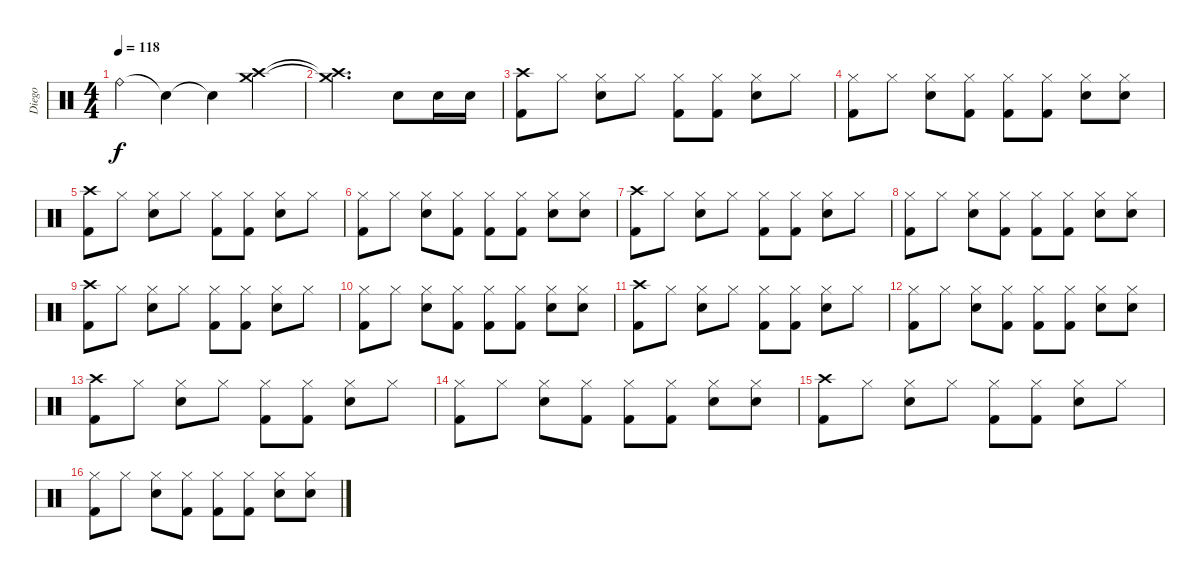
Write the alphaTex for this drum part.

\track ("Diego" "Diego") {instrument percussion}
\staff {score}
\articulation defaults
\ts (4 4)
\tempo 118
\clef neutral
\ks c "Ride (bell)".4{dy f} "Snare (hit)"{t}.4 "Snare (hit)"{t}.4
("Crash high (hit)" "Crash medium (hit)").4 |
("Crash high (hit)"{t} "Crash medium (hit)"{t}).2{d} "Snare (hit) 2".8 "Snare (hit) 2".16 "Snare (hit) 2".16 |
("Crash high (hit)" "Kick (hit) 2").8 "Hi-Hat (closed)".8 ("Hi-Hat (closed)" "Snare (hit) 2").8 "Hi-Hat (closed)".8 ("Hi-Hat (closed)" "Kick (hit) 2").8 ("Hi-Hat (closed)" "Kick (hit) 2").8 ("Hi-Hat (closed)" "Snare (hit) 2").8 "Hi-Hat (closed)".8 |
("Hi-Hat (closed)" "Kick (hit) 2").8 "Hi-Hat (closed)".8 ("Hi-Hat (closed)" "Snare (hit) 2").8 ("Hi-Hat (closed)" "Kick (hit) 2").8 ("Hi-Hat (closed)" "Kick (hit) 2").8 ("Hi-Hat (closed)" "Kick (hit) 2").8 ("Hi-Hat (closed)" "Snare (hit) 2").8 ("Hi-Hat (closed)" "Snare (hit) 2").8 |
("Crash high (hit)" "Kick (hit) 2").8 "Hi-Hat (closed)".8 ("Hi-Hat (closed)" "Snare (hit) 2").8 "Hi-Hat (closed)".8 ("Hi-Hat (closed)" "Kick (hit) 2").8 ("Hi-Hat (closed)" "Kick (hit) 2").8 ("Hi-Hat (closed)" "Snare (hit) 2").8 "Hi-Hat (closed)".8 |
("Hi-Hat (closed)" "Kick (hit) 2").8 "Hi-Hat (closed)".8 ("Hi-Hat (closed)" "Snare (hit) 2").8 ("Hi-Hat (closed)" "Kick (hit) 2").8 ("Hi-Hat (closed)" "Kick (hit) 2").8 ("Hi-Hat (closed)" "Kick (hit) 2").8 ("Hi-Hat (closed)" "Snare (hit) 2").8 ("Hi-Hat (closed)" "Snare (hit) 2").8 |
("Crash high (hit)" "Kick (hit) 2").8 "Hi-Hat (closed)".8 ("Hi-Hat (closed)" "Snare (hit) 2").8 "Hi-Hat (closed)".8 ("Hi-Hat (closed)" "Kick (hit) 2").8 ("Hi-Hat (closed)" "Kick (hit) 2").8 ("Hi-Hat (closed)" "Snare (hit) 2").8 "Hi-Hat (closed)".8 |
("Hi-Hat (closed)" "Kick (hit) 2").8 "Hi-Hat (closed)".8 ("Hi-Hat (closed)" "Snare (hit) 2").8 ("Hi-Hat (closed)" "Kick (hit) 2").8 ("Hi-Hat (closed)" "Kick (hit) 2").8 ("Hi-Hat (closed)" "Kick (hit) 2").8 ("Hi-Hat (closed)" "Snare (hit) 2").8 ("Hi-Hat (closed)" "Snare (hit) 2").8 |
("Crash high (hit)" "Kick (hit) 2").8 "Hi-Hat (closed)".8 ("Hi-Hat (closed)" "Snare (hit) 2").8 "Hi-Hat (closed)".8 ("Hi-Hat (closed)" "Kick (hit) 2").8 ("Hi-Hat (closed)" "Kick (hit) 2").8 ("Hi-Hat (closed)" "Snare (hit) 2").8 "Hi-Hat (closed)".8 |
("Hi-Hat (closed)" "Kick (hit) 2").8 "Hi-Hat (closed)".8 ("Hi-Hat (closed)" "Snare (hit) 2").8 ("Hi-Hat (closed)" "Kick (hit) 2").8 ("Hi-Hat (closed)" "Kick (hit) 2").8 ("Hi-Hat (closed)" "Kick (hit) 2").8 ("Hi-Hat (closed)" "Snare (hit) 2").8 ("Hi-Hat (closed)" "Snare (hit) 2").8 |
("Crash high (hit)" "Kick (hit) 2").8 "Hi-Hat (closed)".8 ("Hi-Hat (closed)" "Snare (hit) 2").8 "Hi-Hat (closed)".8 ("Hi-Hat (closed)" "Kick (hit) 2").8 ("Hi-Hat (closed)" "Kick (hit) 2").8 ("Hi-Hat (closed)" "Snare (hit) 2").8 "Hi-Hat (closed)".8 |
("Hi-Hat (closed)" "Kick (hit) 2").8 "Hi-Hat (closed)".8 ("Hi-Hat (closed)" "Snare (hit) 2").8 ("Hi-Hat (closed)" "Kick (hit) 2").8 ("Hi-Hat (closed)" "Kick (hit) 2").8 ("Hi-Hat (closed)" "Kick (hit) 2").8 ("Hi-Hat (closed)" "Snare (hit) 2").8 ("Hi-Hat (closed)" "Snare (hit) 2").8 |
("Crash high (hit)" "Kick (hit) 2").8 "Hi-Hat (closed)".8 ("Hi-Hat (closed)" "Snare (hit) 2").8 "Hi-Hat (closed)".8 ("Hi-Hat (closed)" "Kick (hit) 2").8 ("Hi-Hat (closed)" "Kick (hit) 2").8 ("Hi-Hat (closed)" "Snare (hit) 2").8 "Hi-Hat (closed)".8 |
("Hi-Hat (closed)" "Kick (hit) 2").8 "Hi-Hat (closed)".8 ("Hi-Hat (closed)" "Snare (hit) 2").8 ("Hi-Hat (closed)" "Kick (hit) 2").8 ("Hi-Hat (closed)" "Kick (hit) 2").8 ("Hi-Hat (closed)" "Kick (hit) 2").8 ("Hi-Hat (closed)" "Snare (hit) 2").8 ("Hi-Hat (closed)" "Snare (hit) 2").8 |
("Crash high (hit)" "Kick (hit) 2").8 "Hi-Hat (closed)".8 ("Hi-Hat (closed)" "Snare (hit) 2").8 "Hi-Hat (closed)".8 ("Hi-Hat (closed)" "Kick (hit) 2").8 ("Hi-Hat (closed)" "Kick (hit) 2").8 ("Hi-Hat (closed)" "Snare (hit) 2").8 "Hi-Hat (closed)".8 |
("Hi-Hat (closed)" "Kick (hit) 2").8 "Hi-Hat (closed)".8 ("Hi-Hat (closed)" "Snare (hit) 2").8 ("Hi-Hat (closed)" "Kick (hit) 2").8 ("Hi-Hat (closed)" "Kick (hit) 2").8 ("Hi-Hat (closed)" "Kick (hit) 2").8 ("Hi-Hat (closed)" "Snare (hit) 2").8 ("Hi-Hat (closed)" "Snare (hit) 2").8
